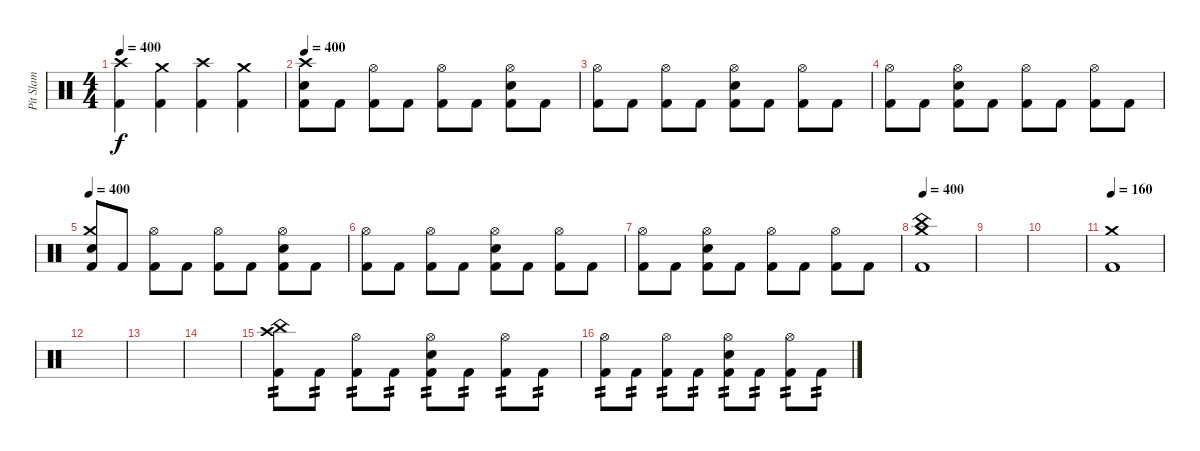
\track ("Pit Slam" "Pit Slam") {instrument percussion}
\staff {score}
\articulation defaults
\ts (4 4)
\tempo 400
\clef neutral
\ks c
("Crash high (hit)" "Kick (hit) 2").4{dy f} ("Crash medium (hit)" "Kick (hit) 2").4 ("Crash high (hit)" "Kick (hit) 2").4 ("Crash medium (hit)" "Kick (hit) 2").4 |
\tempo 400
("Crash high (hit)" "Electric Snare (hit)" "Kick (hit) 2").8 "Kick (hit) 2".8 ("Hi-Hat (open)" "Kick (hit) 2").8 "Kick (hit) 2".8 ("Hi-Hat (open)" "Kick (hit) 2").8 "Kick (hit) 2".8 ("Hi-Hat (open)" "Electric Snare (hit)" "Kick (hit) 2").8 "Kick (hit) 2".8 |
("Hi-Hat (open)" "Kick (hit) 2").8 "Kick (hit) 2".8 ("Hi-Hat (open)" "Kick (hit) 2").8 "Kick (hit) 2".8 ("Hi-Hat (open)" "Electric Snare (hit)" "Kick (hit) 2").8 "Kick (hit) 2".8 ("Hi-Hat (open)" "Kick (hit) 2").8 "Kick (hit) 2".8 |
("Hi-Hat (open)" "Kick (hit) 2").8 "Kick (hit) 2".8 ("Hi-Hat (open)" "Electric Snare (hit)" "Kick (hit) 2").8 "Kick (hit) 2".8 ("Hi-Hat (open)" "Kick (hit) 2").8 "Kick (hit) 2".8 ("Hi-Hat (open)" "Kick (hit) 2").8 "Kick (hit) 2".8 |
\tempo 400
("Crash medium (hit)" "Electric Snare (hit)" "Kick (hit) 2").8 "Kick (hit) 2".8 ("Hi-Hat (open)" "Kick (hit) 2").8 "Kick (hit) 2".8 ("Hi-Hat (open)" "Kick (hit) 2").8 "Kick (hit) 2".8 ("Hi-Hat (open)" "Electric Snare (hit)" "Kick (hit) 2").8 "Kick (hit) 2".8 |
("Hi-Hat (open)" "Kick (hit) 2").8 "Kick (hit) 2".8 ("Hi-Hat (open)" "Kick (hit) 2").8 "Kick (hit) 2".8 ("Hi-Hat (open)" "Electric Snare (hit)" "Kick (hit) 2").8 "Kick (hit) 2".8 ("Hi-Hat (open)" "Kick (hit) 2").8 "Kick (hit) 2".8 |
("Hi-Hat (open)" "Kick (hit) 2").8 "Kick (hit) 2".8 ("Hi-Hat (open)" "Electric Snare (hit)" "Kick (hit) 2").8 "Kick (hit) 2".8 ("Hi-Hat (open)" "Kick (hit) 2").8 "Kick (hit) 2".8 ("Hi-Hat (open)" "Kick (hit) 2").8 "Kick (hit) 2".8 |
\tempo 400
("China (hit)" "Crash medium (hit)" "Kick (hit) 2").1 |
|
|
\tempo 160
("Crash medium (hit)" "Kick (hit) 2").1 |
|
|
|
("Crash high (hit)" "China (hit)" "Kick (hit) 2").8{tp 2} "Kick (hit) 2".8{tp 2} ("Hi-Hat (open)" "Kick (hit) 2").8{tp 2} "Kick (hit) 2".8{tp 2} ("Hi-Hat (open)" "Electric Snare (hit)" "Kick (hit) 2").8{tp 2} "Kick (hit) 2".8{tp 2} ("Hi-Hat (open)" "Kick (hit) 2").8{tp 2} "Kick (hit) 2".8{tp 2} |
("Hi-Hat (open)" "Kick (hit) 2").8{tp 2} "Kick (hit) 2".8{tp 2} ("Hi-Hat (open)" "Kick (hit) 2").8{tp 2} "Kick (hit) 2".8{tp 2} ("Hi-Hat (open)" "Electric Snare (hit)" "Kick (hit) 2").8{tp 2} "Kick (hit) 2".8{tp 2} ("Hi-Hat (open)" "Kick (hit) 2").8{tp 2} "Kick (hit) 2".8{tp 2}
